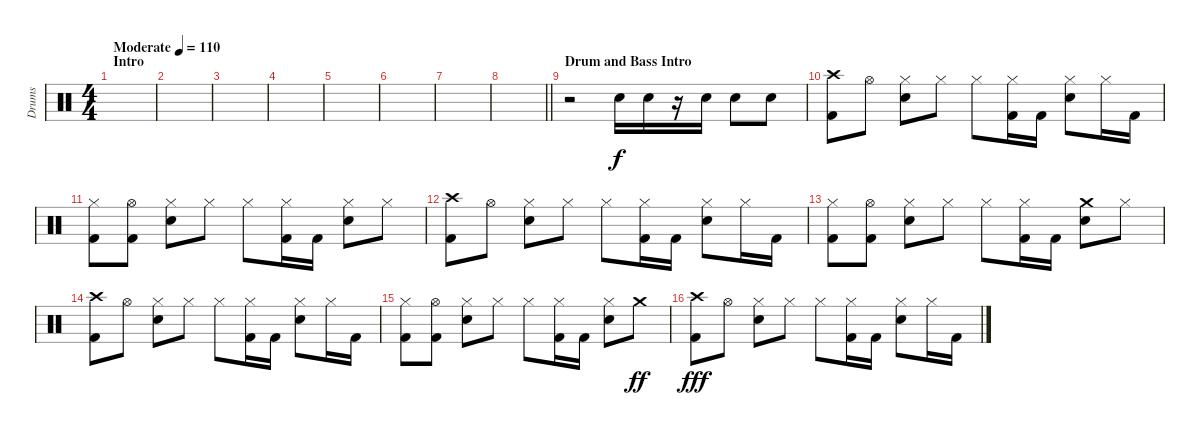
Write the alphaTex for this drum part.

\track ("Drums" "Drums") {instrument percussion}
\staff {score}
\articulation defaults
\ts (4 4)
\section ("" "Intro")
\tempo (110 "Moderate")
\clef neutral
\ks c
|
|
|
|
|
|
|
\barLineRight lightlight
|
\section ("" "Drum and Bass Intro")
r.2 "Snare (hit) 2".16 "Snare (hit) 2".16 r.16 "Snare (hit) 2".16 "Snare (hit) 2".8 "Snare (hit) 2".8 |
("Crash high (hit)" "Kick (hit) 2").8 "Hi-Hat (open)".8 ("Hi-Hat (closed)" "Snare (hit) 2").8 "Hi-Hat (closed)".8 "Hi-Hat (closed)".8 ("Hi-Hat (closed)" "Kick (hit) 2").16 "Kick (hit) 2".16 ("Hi-Hat (closed)" "Snare (hit) 2").8 "Hi-Hat (closed)".16 "Kick (hit) 2".16 |
("Hi-Hat (closed)" "Kick (hit) 2").8 ("Hi-Hat (open)" "Kick (hit) 2").8 ("Hi-Hat (closed)" "Snare (hit) 2").8 "Hi-Hat (closed)".8 "Hi-Hat (closed)".8 ("Hi-Hat (closed)" "Kick (hit) 2").16 "Kick (hit) 2".16 ("Hi-Hat (closed)" "Snare (hit) 2").8 "Hi-Hat (closed)".8 |
("Crash high (hit)" "Kick (hit) 2").8 "Hi-Hat (open)".8 ("Hi-Hat (closed)" "Snare (hit) 2").8 "Hi-Hat (closed)".8 "Hi-Hat (closed)".8 ("Hi-Hat (closed)" "Kick (hit) 2").16 "Kick (hit) 2".16 ("Hi-Hat (closed)" "Snare (hit) 2").8 "Hi-Hat (closed)".16 "Kick (hit) 2".16 |
("Hi-Hat (closed)" "Kick (hit) 2").8 ("Hi-Hat (open)" "Kick (hit) 2").8 ("Hi-Hat (closed)" "Snare (hit) 2").8 "Hi-Hat (closed)".8 "Hi-Hat (closed)".8 ("Hi-Hat (closed)" "Kick (hit) 2").16 "Kick (hit) 2".16 ("Crash medium (hit)" "Snare (hit) 2").8 "Hi-Hat (closed)".8 |
("Crash high (hit)" "Kick (hit) 2").8 "Hi-Hat (open)".8 ("Hi-Hat (closed)" "Snare (hit) 2").8 "Hi-Hat (closed)".8 "Hi-Hat (closed)".8 ("Hi-Hat (closed)" "Kick (hit) 2").16 "Kick (hit) 2".16 ("Hi-Hat (closed)" "Snare (hit) 2").8 "Hi-Hat (closed)".16 "Kick (hit) 2".16 |
("Hi-Hat (closed)" "Kick (hit) 2").8 ("Hi-Hat (open)" "Kick (hit) 2").8 ("Hi-Hat (closed)" "Snare (hit) 2").8 "Hi-Hat (closed)".8 "Hi-Hat (closed)".8 ("Hi-Hat (closed)" "Kick (hit) 2").16 "Kick (hit) 2".16 ("Hi-Hat (closed)" "Snare (hit) 2").8 "Crash medium (hit)".8{dy ff} |
("Crash high (hit)" "Kick (hit) 2").8{dy fff} "Hi-Hat (open)".8 ("Hi-Hat (closed)" "Snare (hit) 2").8 "Hi-Hat (closed)".8 "Hi-Hat (closed)".8 ("Hi-Hat (closed)" "Kick (hit) 2").16 "Kick (hit) 2".16 ("Hi-Hat (closed)" "Snare (hit) 2").8 "Hi-Hat (closed)".16 "Kick (hit) 2".16
